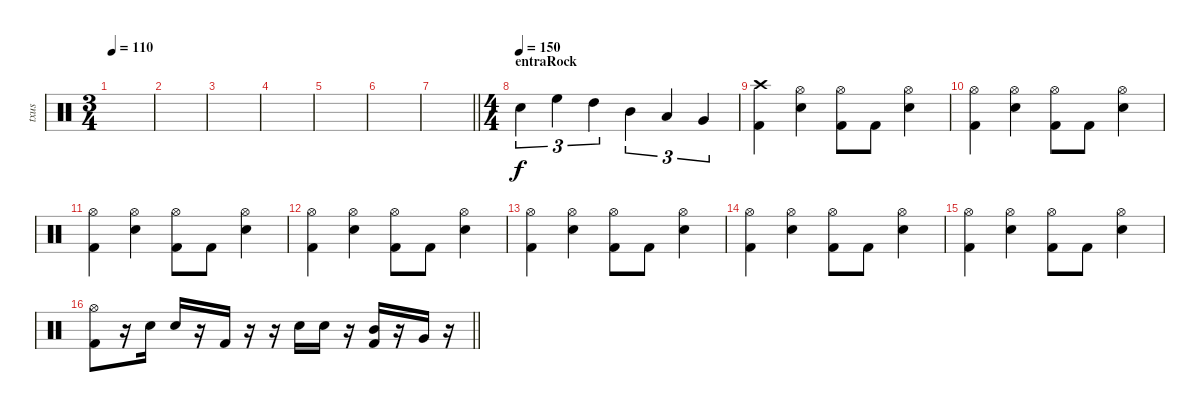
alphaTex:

\track ("txus" "txus") {instrument percussion}
\staff {score}
\articulation defaults
\ts (3 4)
\tempo 110
\clef neutral
\ks c
|
|
|
|
|
|
\barLineRight lightlight
|
\ts (4 4)
\section ("" "entraRock")
\tempo (150)
"Electric Snare (hit)".4{tu (3 2)} "High Floor Tom (hit)".4{tu (3 2)} "High Tom (hit)".4{tu (3 2)} "Mid Tom (hit)".4{tu (3 2)} "Low Tom (hit)".4{tu (3 2)} "Very Low Tom (hit)".4{tu (3 2)} |
("Kick (hit) 2" "Crash high (hit)").4 ("Hi-Hat (open)" "Electric Snare (hit)").4 ("Kick (hit) 2" "Hi-Hat (open)").8 "Kick (hit) 2".8 ("Hi-Hat (open)" "Electric Snare (hit)").4 |
("Kick (hit) 2" "Hi-Hat (open)").4 ("Hi-Hat (open)" "Electric Snare (hit)").4 ("Kick (hit) 2" "Hi-Hat (open)").8 "Kick (hit) 2".8 ("Hi-Hat (open)" "Electric Snare (hit)").4 |
("Kick (hit) 2" "Hi-Hat (open)").4 ("Hi-Hat (open)" "Electric Snare (hit)").4 ("Kick (hit) 2" "Hi-Hat (open)").8 "Kick (hit) 2".8 ("Hi-Hat (open)" "Electric Snare (hit)").4 |
("Kick (hit) 2" "Hi-Hat (open)").4 ("Hi-Hat (open)" "Electric Snare (hit)").4 ("Kick (hit) 2" "Hi-Hat (open)").8 "Kick (hit) 2".8 ("Hi-Hat (open)" "Electric Snare (hit)").4 |
("Kick (hit) 2" "Hi-Hat (open)").4 ("Hi-Hat (open)" "Electric Snare (hit)").4 ("Kick (hit) 2" "Hi-Hat (open)").8 "Kick (hit) 2".8 ("Hi-Hat (open)" "Electric Snare (hit)").4 |
("Kick (hit) 2" "Hi-Hat (open)").4 ("Hi-Hat (open)" "Electric Snare (hit)").4 ("Kick (hit) 2" "Hi-Hat (open)").8 "Kick (hit) 2".8 ("Hi-Hat (open)" "Electric Snare (hit)").4 |
("Kick (hit) 2" "Hi-Hat (open)").4 ("Hi-Hat (open)" "Electric Snare (hit)").4 ("Kick (hit) 2" "Hi-Hat (open)").8 "Kick (hit) 2".8 ("Hi-Hat (open)" "Electric Snare (hit)").4 |
\barLineRight lightlight
("Kick (hit) 2" "Hi-Hat (open)").8 r.16 "Electric Snare (hit)".16 "Electric Snare (hit)".16 r.16 "Kick (hit) 2".16 r.16 r.16 "Electric Snare (hit)".16 "Electric Snare (hit)".16 r.16 ("Kick (hit) 2" "Mid Tom (hit)").16 r.16 "Very Low Tom (hit)".16 r.16
